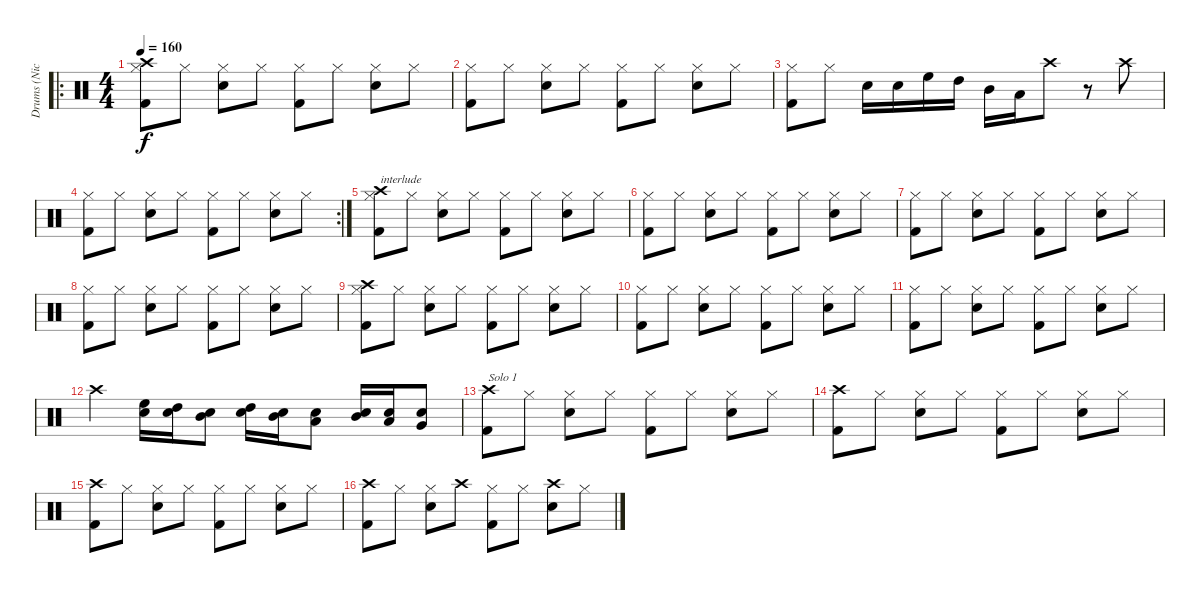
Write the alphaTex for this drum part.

\track ("Drums (Nicko)" "Drums (Nic") {instrument percussion}
\staff {score}
\articulation defaults
\ro
\ts (4 4)
\tempo 160
\clef neutral
\ks c
("Hi-Hat (closed)" "Kick (hit) 2" "Crash high (hit)").8{dy f} "Hi-Hat (closed)".8 ("Hi-Hat (closed)" "Snare (hit) 2").8 "Hi-Hat (closed)".8 ("Hi-Hat (closed)" "Kick (hit) 2").8 "Hi-Hat (closed)".8 ("Hi-Hat (closed)" "Snare (hit) 2").8 "Hi-Hat (closed)".8 |
("Hi-Hat (closed)" "Kick (hit) 2").8 "Hi-Hat (closed)".8 ("Hi-Hat (closed)" "Snare (hit) 2").8 "Hi-Hat (closed)".8 ("Hi-Hat (closed)" "Kick (hit) 2").8 "Hi-Hat (closed)".8 ("Hi-Hat (closed)" "Snare (hit) 2").8 "Hi-Hat (closed)".8 |
("Hi-Hat (closed)" "Kick (hit) 2").8 "Hi-Hat (closed)".8 "Snare (hit) 2".16 "Snare (hit) 2".16 "High Floor Tom (hit)".16 "High Tom (hit)".16 "Mid Tom (hit)".16 "Low Tom (hit)".16 "Crash high (hit)".8 r.8 "Crash high (hit)".8 |
\rc 2
("Hi-Hat (closed)" "Kick (hit) 2").8 "Hi-Hat (closed)".8 ("Hi-Hat (closed)" "Snare (hit) 2").8 "Hi-Hat (closed)".8 ("Hi-Hat (closed)" "Kick (hit) 2").8 "Hi-Hat (closed)".8 ("Hi-Hat (closed)" "Snare (hit) 2").8 "Hi-Hat (closed)".8 |
("Hi-Hat (closed)" "Kick (hit) 2" "Crash high (hit)").8{txt "interlude"} "Hi-Hat (closed)".8 ("Hi-Hat (closed)" "Snare (hit) 2").8 "Hi-Hat (closed)".8 ("Hi-Hat (closed)" "Kick (hit) 2").8 "Hi-Hat (closed)".8 ("Hi-Hat (closed)" "Snare (hit) 2").8 "Hi-Hat (closed)".8 |
("Hi-Hat (closed)" "Kick (hit) 2").8 "Hi-Hat (closed)".8 ("Hi-Hat (closed)" "Snare (hit) 2").8 "Hi-Hat (closed)".8 ("Hi-Hat (closed)" "Kick (hit) 2").8 "Hi-Hat (closed)".8 ("Hi-Hat (closed)" "Snare (hit) 2").8 "Hi-Hat (closed)".8 |
("Hi-Hat (closed)" "Kick (hit) 2").8 "Hi-Hat (closed)".8 ("Hi-Hat (closed)" "Snare (hit) 2").8 "Hi-Hat (closed)".8 ("Hi-Hat (closed)" "Kick (hit) 2").8 "Hi-Hat (closed)".8 ("Hi-Hat (closed)" "Snare (hit) 2").8 "Hi-Hat (closed)".8 |
("Hi-Hat (closed)" "Kick (hit) 2").8 "Hi-Hat (closed)".8 ("Hi-Hat (closed)" "Snare (hit) 2").8 "Hi-Hat (closed)".8 ("Hi-Hat (closed)" "Kick (hit) 2").8 "Hi-Hat (closed)".8 ("Hi-Hat (closed)" "Snare (hit) 2").8 "Hi-Hat (closed)".8 |
("Hi-Hat (closed)" "Kick (hit) 2" "Crash high (hit)").8 "Hi-Hat (closed)".8 ("Hi-Hat (closed)" "Snare (hit) 2").8 "Hi-Hat (closed)".8 ("Hi-Hat (closed)" "Kick (hit) 2").8 "Hi-Hat (closed)".8 ("Hi-Hat (closed)" "Snare (hit) 2").8 "Hi-Hat (closed)".8 |
("Hi-Hat (closed)" "Kick (hit) 2").8 "Hi-Hat (closed)".8 ("Hi-Hat (closed)" "Snare (hit) 2").8 "Hi-Hat (closed)".8 ("Hi-Hat (closed)" "Kick (hit) 2").8 "Hi-Hat (closed)".8 ("Hi-Hat (closed)" "Snare (hit) 2").8 "Hi-Hat (closed)".8 |
("Hi-Hat (closed)" "Kick (hit) 2").8 "Hi-Hat (closed)".8 ("Hi-Hat (closed)" "Snare (hit) 2").8 "Hi-Hat (closed)".8 ("Hi-Hat (closed)" "Kick (hit) 2").8 "Hi-Hat (closed)".8 ("Hi-Hat (closed)" "Snare (hit) 2").8 "Hi-Hat (closed)".8 |
"Crash high (hit)".4 ("High Floor Tom (hit)" "Snare (hit) 2").16 ("High Tom (hit)" "Snare (hit) 2").16 ("Mid Tom (hit)" "Snare (hit) 2").8 ("High Tom (hit)" "Snare (hit) 2").16 ("Mid Tom (hit)" "Snare (hit) 2").16 ("Low Tom (hit)" "Snare (hit) 2").8 ("Mid Tom (hit)" "Snare (hit) 2").16 ("Low Tom (hit)" "Snare (hit) 2").16 ("Very Low Tom (hit)" "Snare (hit) 2").8 |
("Crash high (hit)" "Kick (hit) 2").8{txt "Solo 1"} "Hi-Hat (closed)".8 ("Hi-Hat (closed)" "Snare (hit) 2").8 "Hi-Hat (closed)".8 ("Hi-Hat (closed)" "Kick (hit) 2").8 "Hi-Hat (closed)".8 ("Hi-Hat (closed)" "Snare (hit) 2").8 "Hi-Hat (closed)".8 |
("Crash high (hit)" "Kick (hit) 2").8 "Hi-Hat (closed)".8 ("Hi-Hat (closed)" "Snare (hit) 2").8 "Hi-Hat (closed)".8 ("Hi-Hat (closed)" "Kick (hit) 2").8 "Hi-Hat (closed)".8 ("Hi-Hat (closed)" "Snare (hit) 2").8 "Hi-Hat (closed)".8 |
("Crash high (hit)" "Kick (hit) 2").8 "Hi-Hat (closed)".8 ("Hi-Hat (closed)" "Snare (hit) 2").8 "Hi-Hat (closed)".8 ("Hi-Hat (closed)" "Kick (hit) 2").8 "Hi-Hat (closed)".8 ("Hi-Hat (closed)" "Snare (hit) 2").8 "Hi-Hat (closed)".8 |
("Crash high (hit)" "Kick (hit) 2").8 "Hi-Hat (closed)".8 ("Hi-Hat (closed)" "Snare (hit) 2").8 "Crash high (hit)".8 ("Hi-Hat (closed)" "Kick (hit) 2").8 "Hi-Hat (closed)".8 ("Crash high (hit)" "Snare (hit) 2").8 "Hi-Hat (closed)".8
